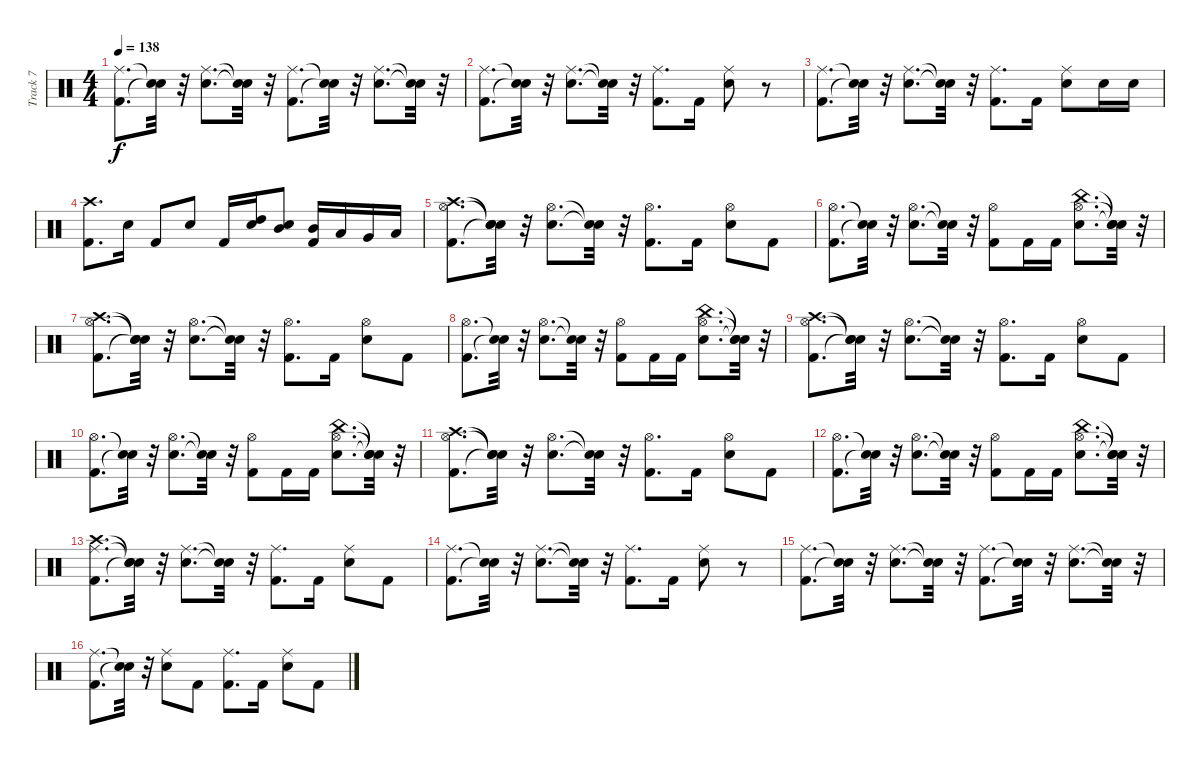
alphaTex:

\track ("Track 7" "Track 7") {instrument percussion}
\staff {score}
\articulation defaults
\ts (4 4)
\tempo 138
\clef neutral
\ks c
("Kick (hit) 2" "Ride (middle)").8{d dy f} ("Snare (hit)"{t} "Snare (hit)"{t}).32 r.32 ("Snare (hit) 2" "Ride (middle)").8{d} ("Snare (hit)"{t} "Snare (hit)"{t}).32 r.32 ("Kick (hit) 2" "Ride (middle)").8{d} ("Snare (hit)"{t} "Snare (hit)"{t}).32 r.32 ("Snare (hit) 2" "Ride (middle)").8{d} ("Snare (hit)"{t} "Snare (hit)"{t}).32 r.32 |
("Kick (hit) 2" "Ride (middle)").8{d} ("Snare (hit)"{t} "Snare (hit)"{t}).32 r.32 ("Snare (hit) 2" "Ride (middle)").8{d} ("Snare (hit)"{t} "Snare (hit)"{t}).32 r.32 ("Kick (hit) 2" "Ride (middle)").8{d} "Kick (hit) 2".16 ("Snare (hit) 2" "Ride (middle)").8 r.8 |
("Kick (hit) 2" "Ride (middle)").8{d} ("Snare (hit)"{t} "Snare (hit)"{t}).32 r.32 ("Snare (hit) 2" "Ride (middle)").8{d} ("Snare (hit)"{t} "Snare (hit)"{t}).32 r.32 ("Kick (hit) 2" "Ride (middle)").8{d} "Kick (hit) 2".16 ("Snare (hit) 2" "Ride (middle)").8 "Snare (hit) 2".16 "Snare (hit) 2".16 |
("Kick (hit) 2" "Crash high (hit)").8{d} "Snare (hit) 2".16 "Kick (hit) 2".8 "Snare (hit) 2".8 "Kick (hit) 2".16 ("Snare (hit) 2" "High Tom (hit)").16 ("Snare (hit) 2" "Mid Tom (hit)").8 ("Kick (hit) 2" "Mid Tom (hit)").16 "Low Tom (hit)".16 "Very Low Tom (hit)".16 "Low Floor Tom (hit)".16 |
("Kick (hit) 2" "Hi-Hat (open)" "Crash high (hit)").8{d} ("Snare (hit)"{t} "Snare (hit)"{t} "Snare (hit)"{t}).32 r.32 ("Snare (hit) 2" "Hi-Hat (open)").8{d} ("Snare (hit)"{t} "Snare (hit)"{t}).32 r.32 ("Kick (hit) 2" "Hi-Hat (open)").8{d} "Kick (hit) 2".16 ("Snare (hit) 2" "Hi-Hat (open)").8 "Kick (hit) 2".8 |
("Kick (hit) 2" "Hi-Hat (open)").8{d} ("Snare (hit)"{t} "Snare (hit)"{t}).32 r.32 ("Snare (hit) 2" "Hi-Hat (open)").8{d} ("Snare (hit)"{t} "Snare (hit)"{t}).32 r.32 ("Kick (hit) 2" "Hi-Hat (open)").8 "Kick (hit) 2".16 "Kick (hit) 2".16 ("Snare (hit) 2" "Hi-Hat (open)" "China (hit)").8{d} ("Snare (hit)"{t} "Snare (hit)"{t} "Snare (hit)"{t}).32 r.32 |
("Kick (hit) 2" "Hi-Hat (open)" "Crash high (hit)").8{d} ("Snare (hit)"{t} "Snare (hit)"{t} "Snare (hit)"{t}).32 r.32 ("Snare (hit) 2" "Hi-Hat (open)").8{d} ("Snare (hit)"{t} "Snare (hit)"{t}).32 r.32 ("Kick (hit) 2" "Hi-Hat (open)").8{d} "Kick (hit) 2".16 ("Snare (hit) 2" "Hi-Hat (open)").8 "Kick (hit) 2".8 |
("Kick (hit) 2" "Hi-Hat (open)").8{d} ("Snare (hit)"{t} "Snare (hit)"{t}).32 r.32 ("Snare (hit) 2" "Hi-Hat (open)").8{d} ("Snare (hit)"{t} "Snare (hit)"{t}).32 r.32 ("Kick (hit) 2" "Hi-Hat (open)").8 "Kick (hit) 2".16 "Kick (hit) 2".16 ("Snare (hit) 2" "Hi-Hat (open)" "China (hit)").8{d} ("Snare (hit)"{t} "Snare (hit)"{t} "Snare (hit)"{t}).32 r.32 |
("Kick (hit) 2" "Hi-Hat (open)" "Crash high (hit)").8{d} ("Snare (hit)"{t} "Snare (hit)"{t} "Snare (hit)"{t}).32 r.32 ("Snare (hit) 2" "Hi-Hat (open)").8{d} ("Snare (hit)"{t} "Snare (hit)"{t}).32 r.32 ("Kick (hit) 2" "Hi-Hat (open)").8{d} "Kick (hit) 2".16 ("Snare (hit) 2" "Hi-Hat (open)").8 "Kick (hit) 2".8 |
("Kick (hit) 2" "Hi-Hat (open)").8{d} ("Snare (hit)"{t} "Snare (hit)"{t}).32 r.32 ("Snare (hit) 2" "Hi-Hat (open)").8{d} ("Snare (hit)"{t} "Snare (hit)"{t}).32 r.32 ("Kick (hit) 2" "Hi-Hat (open)").8 "Kick (hit) 2".16 "Kick (hit) 2".16 ("Snare (hit) 2" "Hi-Hat (open)" "China (hit)").8{d} ("Snare (hit)"{t} "Snare (hit)"{t} "Snare (hit)"{t}).32 r.32 |
("Kick (hit) 2" "Hi-Hat (open)" "Crash high (hit)").8{d} ("Snare (hit)"{t} "Snare (hit)"{t} "Snare (hit)"{t}).32 r.32 ("Snare (hit) 2" "Hi-Hat (open)").8{d} ("Snare (hit)"{t} "Snare (hit)"{t}).32 r.32 ("Kick (hit) 2" "Hi-Hat (open)").8{d} "Kick (hit) 2".16 ("Snare (hit) 2" "Hi-Hat (open)").8 "Kick (hit) 2".8 |
("Kick (hit) 2" "Hi-Hat (open)").8{d} ("Snare (hit)"{t} "Snare (hit)"{t}).32 r.32 ("Snare (hit) 2" "Hi-Hat (open)").8{d} ("Snare (hit)"{t} "Snare (hit)"{t}).32 r.32 ("Kick (hit) 2" "Hi-Hat (open)").8 "Kick (hit) 2".16 "Kick (hit) 2".16 ("Snare (hit) 2" "Hi-Hat (open)" "China (hit)").8{d} ("Snare (hit)"{t} "Snare (hit)"{t} "Snare (hit)"{t}).32 r.32 |
("Kick (hit) 2" "Crash high (hit)" "Ride (middle)").8{d} ("Snare (hit)"{t} "Snare (hit)"{t} "Snare (hit)"{t}).32 r.32 ("Snare (hit) 2" "Ride (middle)").8{d} ("Snare (hit)"{t} "Snare (hit)"{t}).32 r.32 ("Kick (hit) 2" "Ride (middle)").8{d} "Kick (hit) 2".16 ("Snare (hit) 2" "Ride (middle)").8 "Kick (hit) 2".8 |
("Kick (hit) 2" "Ride (middle)").8{d} ("Snare (hit)"{t} "Snare (hit)"{t}).32 r.32 ("Snare (hit) 2" "Ride (middle)").8{d} ("Snare (hit)"{t} "Snare (hit)"{t}).32 r.32 ("Kick (hit) 2" "Ride (middle)").8{d} "Kick (hit) 2".16 ("Snare (hit) 2" "Ride (middle)").8 r.8 |
("Kick (hit) 2" "Ride (middle)").8{d} ("Snare (hit)"{t} "Snare (hit)"{t}).32 r.32 ("Snare (hit) 2" "Ride (middle)").8{d} ("Snare (hit)"{t} "Snare (hit)"{t}).32 r.32 ("Kick (hit) 2" "Ride (middle)").8{d} ("Snare (hit)"{t} "Snare (hit)"{t}).32 r.32 ("Snare (hit) 2" "Ride (middle)").8{d} ("Snare (hit)"{t} "Snare (hit)"{t}).32 r.32 |
("Kick (hit) 2" "Ride (middle)").8{d} ("Snare (hit)"{t} "Snare (hit)"{t}).32 r.32 ("Snare (hit) 2" "Ride (middle)").8 "Kick (hit) 2".8 ("Kick (hit) 2" "Ride (middle)").8{d} "Kick (hit) 2".16 ("Snare (hit) 2" "Ride (middle)").8 "Kick (hit) 2".8
